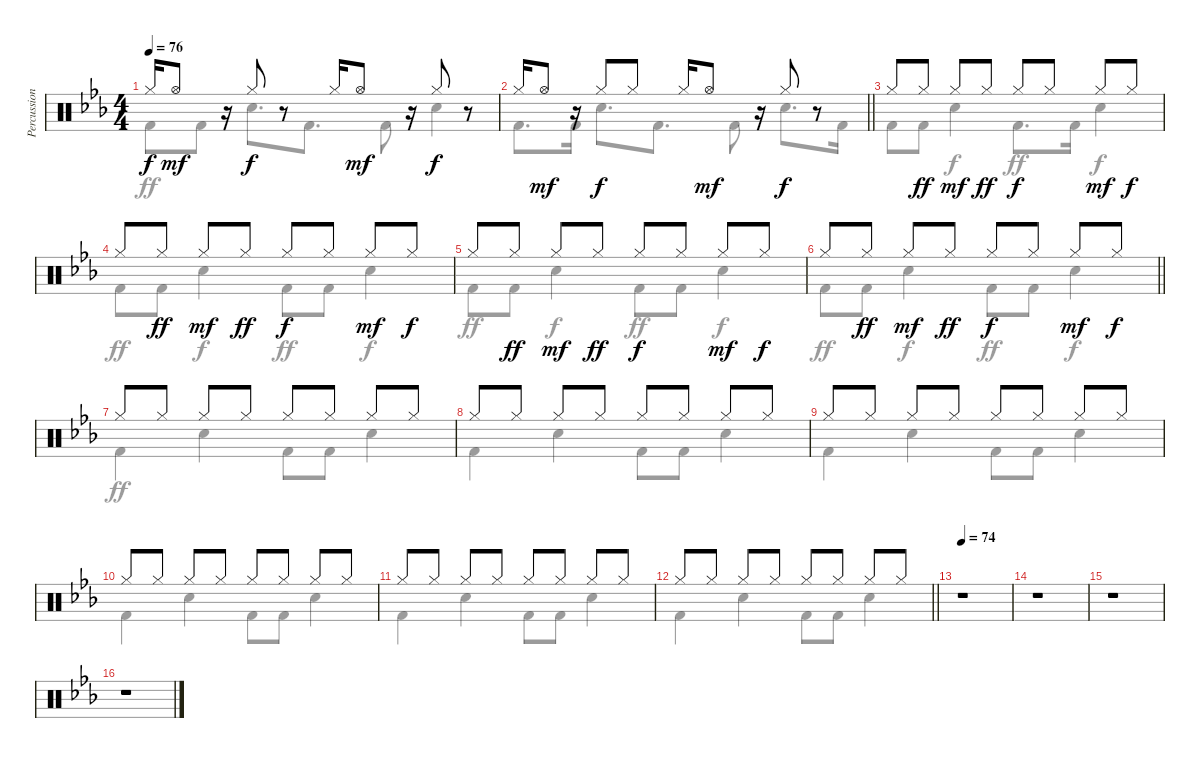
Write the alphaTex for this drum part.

\track ("Percussion" "Percussion") {instrument percussion}
\staff {score}
\articulation defaults
\voice
\ts (4 4)
\tempo 76
\clef neutral
\ks cminor "Hi-Hat (closed)".16{dy f} "Hi-Hat (open)".8{dy mf}
r.16 "Hi-Hat (closed)".8{dy f} r.8 "Hi-Hat (closed)".16 "Hi-Hat (open)".8{dy mf} r.16 "Hi-Hat (closed)".8{dy f} r.8 |
\barLineRight lightlight "Hi-Hat (closed)".16 "Hi-Hat (open)".8{dy mf}
r.16 "Hi-Hat (closed)".8{dy f} "Hi-Hat (closed)".8 "Hi-Hat (closed)".16 "Hi-Hat (open)".8{dy mf} r.16 "Hi-Hat (closed)".8{dy f} r.8 |
"Hi-Hat (closed)".8 "Hi-Hat (closed)".8{dy ff} "Hi-Hat (closed)".8{dy mf} "Hi-Hat (closed)".8{dy ff} "Hi-Hat (closed)".8{dy f} "Hi-Hat (closed)".8 "Hi-Hat (closed)".8{dy mf} "Hi-Hat (closed)".8{dy f} |
"Hi-Hat (closed)".8 "Hi-Hat (closed)".8{dy ff} "Hi-Hat (closed)".8{dy mf} "Hi-Hat (closed)".8{dy ff} "Hi-Hat (closed)".8{dy f} "Hi-Hat (closed)".8 "Hi-Hat (closed)".8{dy mf} "Hi-Hat (closed)".8{dy f} |
"Hi-Hat (closed)".8 "Hi-Hat (closed)".8{dy ff} "Hi-Hat (closed)".8{dy mf} "Hi-Hat (closed)".8{dy ff} "Hi-Hat (closed)".8{dy f} "Hi-Hat (closed)".8 "Hi-Hat (closed)".8{dy mf} "Hi-Hat (closed)".8{dy f} |
\barLineRight lightlight "Hi-Hat (closed)".8 "Hi-Hat (closed)".8{dy ff} "Hi-Hat (closed)".8{dy mf} "Hi-Hat (closed)".8{dy ff} "Hi-Hat (closed)".8{dy f} "Hi-Hat (closed)".8 "Hi-Hat (closed)".8{dy mf} "Hi-Hat (closed)".8{dy f}
|
"Hi-Hat (closed)".8 "Hi-Hat (closed)".8 "Hi-Hat (closed)".8 "Hi-Hat (closed)".8 "Hi-Hat (closed)".8 "Hi-Hat (closed)".8 "Hi-Hat (closed)".8 "Hi-Hat (closed)".8 |
"Hi-Hat (closed)".8 "Hi-Hat (closed)".8 "Hi-Hat (closed)".8 "Hi-Hat (closed)".8 "Hi-Hat (closed)".8 "Hi-Hat (closed)".8 "Hi-Hat (closed)".8 "Hi-Hat (closed)".8 |
"Hi-Hat (closed)".8 "Hi-Hat (closed)".8 "Hi-Hat (closed)".8 "Hi-Hat (closed)".8 "Hi-Hat (closed)".8 "Hi-Hat (closed)".8 "Hi-Hat (closed)".8 "Hi-Hat (closed)".8 |
"Hi-Hat (closed)".8 "Hi-Hat (closed)".8 "Hi-Hat (closed)".8 "Hi-Hat (closed)".8 "Hi-Hat (closed)".8 "Hi-Hat (closed)".8 "Hi-Hat (closed)".8 "Hi-Hat (closed)".8 |
"Hi-Hat (closed)".8 "Hi-Hat (closed)".8 "Hi-Hat (closed)".8 "Hi-Hat (closed)".8 "Hi-Hat (closed)".8 "Hi-Hat (closed)".8 "Hi-Hat (closed)".8 "Hi-Hat (closed)".8 |
\barLineRight lightlight "Hi-Hat (closed)".8 "Hi-Hat (closed)".8 "Hi-Hat (closed)".8 "Hi-Hat (closed)".8 "Hi-Hat (closed)".8 "Hi-Hat (closed)".8 "Hi-Hat (closed)".8 "Hi-Hat (closed)".8
|
\tempo 74
r.1 |
r.1 |
r.1 |
r.1
\voice
\clef neutral
\ottava regular
\simile none
\ks cminor "Kick (hit) 2".8{dy ff} "Kick (hit) 2".8 "Electric Snare (hit)".8{d} "Kick (hit) 2".8{d} "Kick (hit) 2".8 "Electric Snare (hit)".4
|
\barLineRight lightlight "Kick (hit) 2".8{d} "Kick (hit) 2".16 "Electric Snare (hit)".8{d} "Kick (hit) 2".8{d} "Kick (hit) 2".8 "Electric Snare (hit)".8{d} "Kick (hit) 2".16
|
"Kick (hit) 2".8 "Kick (hit) 2".8 "Electric Snare (hit)".4{dy f} "Kick (hit) 2".8{d dy ff} "Kick (hit) 2".16 "Electric Snare (hit)".4{dy f} |
"Kick (hit) 2".8{dy ff} "Kick (hit) 2".8 "Electric Snare (hit)".4{dy f} "Kick (hit) 2".8{dy ff} "Kick (hit) 2".8 "Electric Snare (hit)".4{dy f} |
"Kick (hit) 2".8{dy ff} "Kick (hit) 2".8 "Electric Snare (hit)".4{dy f} "Kick (hit) 2".8{dy ff} "Kick (hit) 2".8 "Electric Snare (hit)".4{dy f} |
\barLineRight lightlight "Kick (hit) 2".8{dy ff} "Kick (hit) 2".8 "Electric Snare (hit)".4{dy f} "Kick (hit) 2".8{dy ff} "Kick (hit) 2".8 "Electric Snare (hit)".4{dy f}
|
"Kick (hit) 2".4{dy ff} "Snare (hit) 2".4 "Kick (hit) 2".8 "Kick (hit) 2".8 "Snare (hit) 2".4 |
"Kick (hit) 2".4 "Snare (hit) 2".4 "Kick (hit) 2".8 "Kick (hit) 2".8 "Snare (hit) 2".4 |
"Kick (hit) 2".4 "Snare (hit) 2".4 "Kick (hit) 2".8 "Kick (hit) 2".8 "Snare (hit) 2".4 |
"Kick (hit) 2".4 "Snare (hit) 2".4 "Kick (hit) 2".8 "Kick (hit) 2".8 "Snare (hit) 2".4 |
"Kick (hit) 2".4 "Snare (hit) 2".4 "Kick (hit) 2".8 "Kick (hit) 2".8 "Snare (hit) 2".4 |
\barLineRight lightlight "Kick (hit) 2".4 "Snare (hit) 2".4 "Kick (hit) 2".8 "Kick (hit) 2".8 "Snare (hit) 2".4
|
|
|
|
